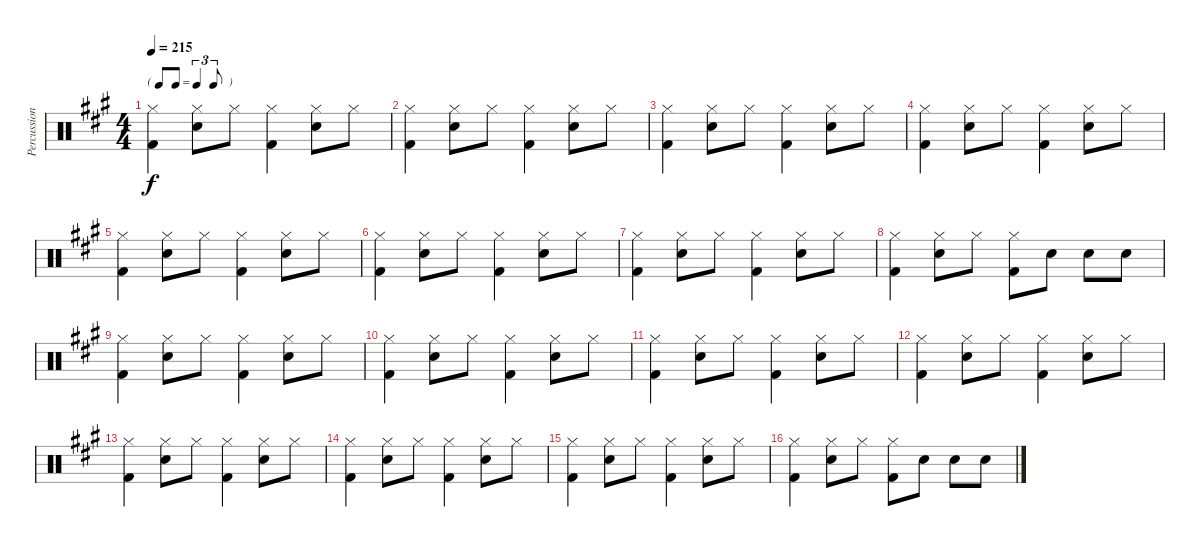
\track ("Percussion" "Percussion") {instrument percussion}
\staff {score}
\articulation defaults
\ts (4 4)
\tf triplet8th
\tempo 215
\clef neutral
\ks a
("Hi-Hat (closed)" "Kick (hit) 2").4{dy f} ("Hi-Hat (closed)" "Snare (hit) 2").8 "Hi-Hat (closed)".8 ("Hi-Hat (closed)" "Kick (hit) 2").4 ("Hi-Hat (closed)" "Snare (hit) 2").8 "Hi-Hat (closed)".8 |
("Hi-Hat (closed)" "Kick (hit) 2").4 ("Hi-Hat (closed)" "Snare (hit) 2").8 "Hi-Hat (closed)".8 ("Hi-Hat (closed)" "Kick (hit) 2").4 ("Hi-Hat (closed)" "Snare (hit) 2").8 "Hi-Hat (closed)".8 |
("Hi-Hat (closed)" "Kick (hit) 2").4 ("Hi-Hat (closed)" "Snare (hit) 2").8 "Hi-Hat (closed)".8 ("Hi-Hat (closed)" "Kick (hit) 2").4 ("Hi-Hat (closed)" "Snare (hit) 2").8 "Hi-Hat (closed)".8 |
("Hi-Hat (closed)" "Kick (hit) 2").4 ("Hi-Hat (closed)" "Snare (hit) 2").8 "Hi-Hat (closed)".8 ("Hi-Hat (closed)" "Kick (hit) 2").4 ("Hi-Hat (closed)" "Snare (hit) 2").8 "Hi-Hat (closed)".8 |
("Hi-Hat (closed)" "Kick (hit) 2").4 ("Hi-Hat (closed)" "Snare (hit) 2").8 "Hi-Hat (closed)".8 ("Hi-Hat (closed)" "Kick (hit) 2").4 ("Hi-Hat (closed)" "Snare (hit) 2").8 "Hi-Hat (closed)".8 |
("Hi-Hat (closed)" "Kick (hit) 2").4 ("Hi-Hat (closed)" "Snare (hit) 2").8 "Hi-Hat (closed)".8 ("Hi-Hat (closed)" "Kick (hit) 2").4 ("Hi-Hat (closed)" "Snare (hit) 2").8 "Hi-Hat (closed)".8 |
("Hi-Hat (closed)" "Kick (hit) 2").4 ("Hi-Hat (closed)" "Snare (hit) 2").8 "Hi-Hat (closed)".8 ("Hi-Hat (closed)" "Kick (hit) 2").4 ("Hi-Hat (closed)" "Snare (hit) 2").8 "Hi-Hat (closed)".8 |
("Hi-Hat (closed)" "Kick (hit) 2").4 ("Hi-Hat (closed)" "Snare (hit) 2").8 "Hi-Hat (closed)".8 ("Hi-Hat (closed)" "Kick (hit) 2").8 "Snare (hit) 2".8 "Snare (hit) 2".8 "Snare (hit) 2".8 |
("Hi-Hat (closed)" "Kick (hit) 2").4 ("Hi-Hat (closed)" "Snare (hit) 2").8 "Hi-Hat (closed)".8 ("Hi-Hat (closed)" "Kick (hit) 2").4 ("Hi-Hat (closed)" "Snare (hit) 2").8 "Hi-Hat (closed)".8 |
("Hi-Hat (closed)" "Kick (hit) 2").4 ("Hi-Hat (closed)" "Snare (hit) 2").8 "Hi-Hat (closed)".8 ("Hi-Hat (closed)" "Kick (hit) 2").4 ("Hi-Hat (closed)" "Snare (hit) 2").8 "Hi-Hat (closed)".8 |
("Hi-Hat (closed)" "Kick (hit) 2").4 ("Hi-Hat (closed)" "Snare (hit) 2").8 "Hi-Hat (closed)".8 ("Hi-Hat (closed)" "Kick (hit) 2").4 ("Hi-Hat (closed)" "Snare (hit) 2").8 "Hi-Hat (closed)".8 |
("Hi-Hat (closed)" "Kick (hit) 2").4 ("Hi-Hat (closed)" "Snare (hit) 2").8 "Hi-Hat (closed)".8 ("Hi-Hat (closed)" "Kick (hit) 2").4 ("Hi-Hat (closed)" "Snare (hit) 2").8 "Hi-Hat (closed)".8 |
("Hi-Hat (closed)" "Kick (hit) 2").4 ("Hi-Hat (closed)" "Snare (hit) 2").8 "Hi-Hat (closed)".8 ("Hi-Hat (closed)" "Kick (hit) 2").4 ("Hi-Hat (closed)" "Snare (hit) 2").8 "Hi-Hat (closed)".8 |
("Hi-Hat (closed)" "Kick (hit) 2").4 ("Hi-Hat (closed)" "Snare (hit) 2").8 "Hi-Hat (closed)".8 ("Hi-Hat (closed)" "Kick (hit) 2").4 ("Hi-Hat (closed)" "Snare (hit) 2").8 "Hi-Hat (closed)".8 |
("Hi-Hat (closed)" "Kick (hit) 2").4 ("Hi-Hat (closed)" "Snare (hit) 2").8 "Hi-Hat (closed)".8 ("Hi-Hat (closed)" "Kick (hit) 2").4 ("Hi-Hat (closed)" "Snare (hit) 2").8 "Hi-Hat (closed)".8 |
("Hi-Hat (closed)" "Kick (hit) 2").4 ("Hi-Hat (closed)" "Snare (hit) 2").8 "Hi-Hat (closed)".8 ("Hi-Hat (closed)" "Kick (hit) 2").8 "Snare (hit) 2".8 "Snare (hit) 2".8 "Snare (hit) 2".8
